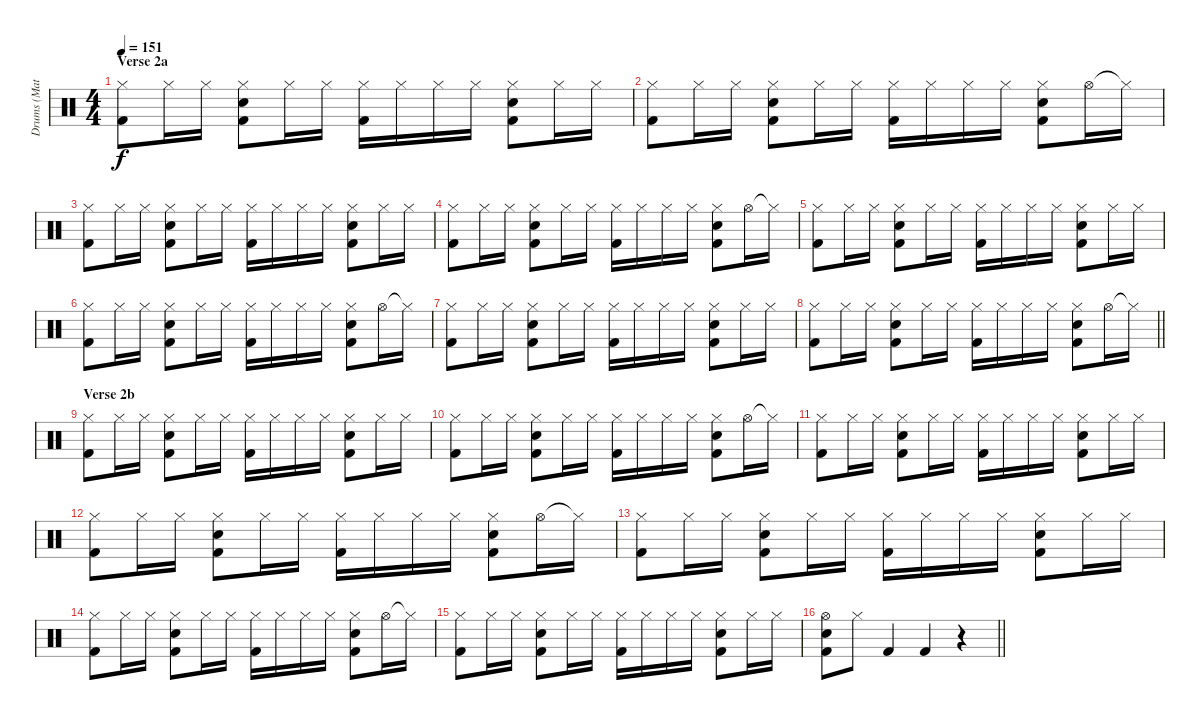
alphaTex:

\track ("Drums (Matt Tong)" "Drums (Mat") {instrument percussion}
\staff {score}
\articulation defaults
\ts (4 4)
\section ("" "Verse 2a")
\tempo 151
\clef neutral
\ks c
("Hi-Hat (closed)" "Kick (hit) 2").8{dy f} "Hi-Hat (closed)".16 "Hi-Hat (closed)".16 ("Hi-Hat (closed)" "Electric Snare (hit)" "Kick (hit) 2").8 "Hi-Hat (closed)".16 "Hi-Hat (closed)".16 ("Hi-Hat (closed)" "Kick (hit) 2").16 "Hi-Hat (closed)".16 "Hi-Hat (closed)".16 "Hi-Hat (closed)".16 ("Hi-Hat (closed)" "Electric Snare (hit)" "Kick (hit) 2").8 "Hi-Hat (closed)".16 "Hi-Hat (closed)".16 |
("Hi-Hat (closed)" "Kick (hit) 2").8 "Hi-Hat (closed)".16 "Hi-Hat (closed)".16 ("Hi-Hat (closed)" "Electric Snare (hit)" "Kick (hit) 2").8 "Hi-Hat (closed)".16 "Hi-Hat (closed)".16 ("Hi-Hat (closed)" "Kick (hit) 2").16 "Hi-Hat (closed)".16 "Hi-Hat (closed)".16 "Hi-Hat (closed)".16 ("Hi-Hat (closed)" "Electric Snare (hit)" "Kick (hit) 2").8 "Hi-Hat (open)".16 "Hi-Hat (closed)"{t}.16 |
("Hi-Hat (closed)" "Kick (hit) 2").8 "Hi-Hat (closed)".16 "Hi-Hat (closed)".16 ("Hi-Hat (closed)" "Electric Snare (hit)" "Kick (hit) 2").8 "Hi-Hat (closed)".16 "Hi-Hat (closed)".16 ("Hi-Hat (closed)" "Kick (hit) 2").16 "Hi-Hat (closed)".16 "Hi-Hat (closed)".16 "Hi-Hat (closed)".16 ("Hi-Hat (closed)" "Electric Snare (hit)" "Kick (hit) 2").8 "Hi-Hat (closed)".16 "Hi-Hat (closed)".16 |
("Hi-Hat (closed)" "Kick (hit) 2").8 "Hi-Hat (closed)".16 "Hi-Hat (closed)".16 ("Hi-Hat (closed)" "Electric Snare (hit)" "Kick (hit) 2").8 "Hi-Hat (closed)".16 "Hi-Hat (closed)".16 ("Hi-Hat (closed)" "Kick (hit) 2").16 "Hi-Hat (closed)".16 "Hi-Hat (closed)".16 "Hi-Hat (closed)".16 ("Hi-Hat (closed)" "Electric Snare (hit)" "Kick (hit) 2").8 "Hi-Hat (open)".16 "Hi-Hat (closed)"{t}.16 |
("Hi-Hat (closed)" "Kick (hit) 2").8 "Hi-Hat (closed)".16 "Hi-Hat (closed)".16 ("Hi-Hat (closed)" "Electric Snare (hit)" "Kick (hit) 2").8 "Hi-Hat (closed)".16 "Hi-Hat (closed)".16 ("Hi-Hat (closed)" "Kick (hit) 2").16 "Hi-Hat (closed)".16 "Hi-Hat (closed)".16 "Hi-Hat (closed)".16 ("Hi-Hat (closed)" "Electric Snare (hit)" "Kick (hit) 2").8 "Hi-Hat (closed)".16 "Hi-Hat (closed)".16 |
("Hi-Hat (closed)" "Kick (hit) 2").8 "Hi-Hat (closed)".16 "Hi-Hat (closed)".16 ("Hi-Hat (closed)" "Electric Snare (hit)" "Kick (hit) 2").8 "Hi-Hat (closed)".16 "Hi-Hat (closed)".16 ("Hi-Hat (closed)" "Kick (hit) 2").16 "Hi-Hat (closed)".16 "Hi-Hat (closed)".16 "Hi-Hat (closed)".16 ("Hi-Hat (closed)" "Electric Snare (hit)" "Kick (hit) 2").8 "Hi-Hat (open)".16 "Hi-Hat (closed)"{t}.16 |
("Hi-Hat (closed)" "Kick (hit) 2").8 "Hi-Hat (closed)".16 "Hi-Hat (closed)".16 ("Hi-Hat (closed)" "Electric Snare (hit)" "Kick (hit) 2").8 "Hi-Hat (closed)".16 "Hi-Hat (closed)".16 ("Hi-Hat (closed)" "Kick (hit) 2").16 "Hi-Hat (closed)".16 "Hi-Hat (closed)".16 "Hi-Hat (closed)".16 ("Hi-Hat (closed)" "Electric Snare (hit)" "Kick (hit) 2").8 "Hi-Hat (closed)".16 "Hi-Hat (closed)".16 |
\barLineRight lightlight
("Hi-Hat (closed)" "Kick (hit) 2").8 "Hi-Hat (closed)".16 "Hi-Hat (closed)".16 ("Hi-Hat (closed)" "Electric Snare (hit)" "Kick (hit) 2").8 "Hi-Hat (closed)".16 "Hi-Hat (closed)".16 ("Hi-Hat (closed)" "Kick (hit) 2").16 "Hi-Hat (closed)".16 "Hi-Hat (closed)".16 "Hi-Hat (closed)".16 ("Hi-Hat (closed)" "Electric Snare (hit)" "Kick (hit) 2").8 "Hi-Hat (open)".16 "Hi-Hat (closed)"{t}.16 |
\section ("" "Verse 2b")
("Hi-Hat (closed)" "Kick (hit) 2").8 "Hi-Hat (closed)".16 "Hi-Hat (closed)".16 ("Hi-Hat (closed)" "Electric Snare (hit)" "Kick (hit) 2").8 "Hi-Hat (closed)".16 "Hi-Hat (closed)".16 ("Hi-Hat (closed)" "Kick (hit) 2").16 "Hi-Hat (closed)".16 "Hi-Hat (closed)".16 "Hi-Hat (closed)".16 ("Hi-Hat (closed)" "Electric Snare (hit)" "Kick (hit) 2").8 "Hi-Hat (closed)".16 "Hi-Hat (closed)".16 |
("Hi-Hat (closed)" "Kick (hit) 2").8 "Hi-Hat (closed)".16 "Hi-Hat (closed)".16 ("Hi-Hat (closed)" "Electric Snare (hit)" "Kick (hit) 2").8 "Hi-Hat (closed)".16 "Hi-Hat (closed)".16 ("Hi-Hat (closed)" "Kick (hit) 2").16 "Hi-Hat (closed)".16 "Hi-Hat (closed)".16 "Hi-Hat (closed)".16 ("Hi-Hat (closed)" "Electric Snare (hit)" "Kick (hit) 2").8 "Hi-Hat (open)".16 "Hi-Hat (closed)"{t}.16 |
("Hi-Hat (closed)" "Kick (hit) 2").8 "Hi-Hat (closed)".16 "Hi-Hat (closed)".16 ("Hi-Hat (closed)" "Electric Snare (hit)" "Kick (hit) 2").8 "Hi-Hat (closed)".16 "Hi-Hat (closed)".16 ("Hi-Hat (closed)" "Kick (hit) 2").16 "Hi-Hat (closed)".16 "Hi-Hat (closed)".16 "Hi-Hat (closed)".16 ("Hi-Hat (closed)" "Electric Snare (hit)" "Kick (hit) 2").8 "Hi-Hat (closed)".16 "Hi-Hat (closed)".16 |
("Hi-Hat (closed)" "Kick (hit) 2").8 "Hi-Hat (closed)".16 "Hi-Hat (closed)".16 ("Hi-Hat (closed)" "Electric Snare (hit)" "Kick (hit) 2").8 "Hi-Hat (closed)".16 "Hi-Hat (closed)".16 ("Hi-Hat (closed)" "Kick (hit) 2").16 "Hi-Hat (closed)".16 "Hi-Hat (closed)".16 "Hi-Hat (closed)".16 ("Hi-Hat (closed)" "Electric Snare (hit)" "Kick (hit) 2").8 "Hi-Hat (open)".16 "Hi-Hat (closed)"{t}.16 |
("Hi-Hat (closed)" "Kick (hit) 2").8 "Hi-Hat (closed)".16 "Hi-Hat (closed)".16 ("Hi-Hat (closed)" "Electric Snare (hit)" "Kick (hit) 2").8 "Hi-Hat (closed)".16 "Hi-Hat (closed)".16 ("Hi-Hat (closed)" "Kick (hit) 2").16 "Hi-Hat (closed)".16 "Hi-Hat (closed)".16 "Hi-Hat (closed)".16 ("Hi-Hat (closed)" "Electric Snare (hit)" "Kick (hit) 2").8 "Hi-Hat (closed)".16 "Hi-Hat (closed)".16 |
("Hi-Hat (closed)" "Kick (hit) 2").8 "Hi-Hat (closed)".16 "Hi-Hat (closed)".16 ("Hi-Hat (closed)" "Electric Snare (hit)" "Kick (hit) 2").8 "Hi-Hat (closed)".16 "Hi-Hat (closed)".16 ("Hi-Hat (closed)" "Kick (hit) 2").16 "Hi-Hat (closed)".16 "Hi-Hat (closed)".16 "Hi-Hat (closed)".16 ("Hi-Hat (closed)" "Electric Snare (hit)" "Kick (hit) 2").8 "Hi-Hat (open)".16 "Hi-Hat (closed)"{t}.16 |
("Hi-Hat (closed)" "Kick (hit) 2").8 "Hi-Hat (closed)".16 "Hi-Hat (closed)".16 ("Hi-Hat (closed)" "Electric Snare (hit)" "Kick (hit) 2").8 "Hi-Hat (closed)".16 "Hi-Hat (closed)".16 ("Hi-Hat (closed)" "Kick (hit) 2").16 "Hi-Hat (closed)".16 "Hi-Hat (closed)".16 "Hi-Hat (closed)".16 ("Hi-Hat (closed)" "Electric Snare (hit)" "Kick (hit) 2").8 "Hi-Hat (closed)".16 "Hi-Hat (closed)".16 |
\barLineRight lightlight
("Hi-Hat (open)" "Electric Snare (hit)" "Kick (hit) 2").8 "Hi-Hat (closed)".8 "Kick (hit) 2".4 "Kick (hit) 2".4 r.4
